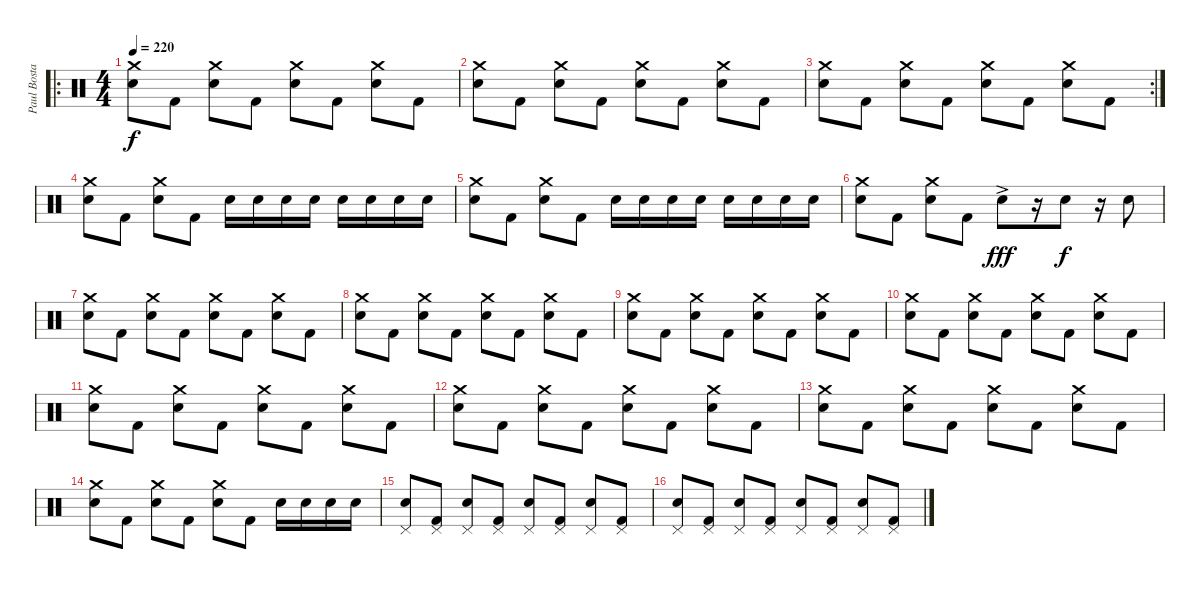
\track ("Paul Bostaph" "Paul Bosta") {instrument percussion}
\staff {score}
\articulation defaults
\ro
\ts (4 4)
\tempo 220
\clef neutral
\ks c
("Snare (hit) 2" "Crash medium (hit)").8{dy f} "Kick (hit) 2".8 ("Snare (hit) 2" "Crash medium (hit)").8 "Kick (hit) 2".8 ("Snare (hit) 2" "Crash medium (hit)").8 "Kick (hit) 2".8 ("Snare (hit) 2" "Crash medium (hit)").8 "Kick (hit) 2".8 |
("Snare (hit) 2" "Crash medium (hit)").8 "Kick (hit) 2".8 ("Snare (hit) 2" "Crash medium (hit)").8 "Kick (hit) 2".8 ("Snare (hit) 2" "Crash medium (hit)").8 "Kick (hit) 2".8 ("Snare (hit) 2" "Crash medium (hit)").8 "Kick (hit) 2".8 |
\rc 2
("Snare (hit) 2" "Crash medium (hit)").8 "Kick (hit) 2".8 ("Snare (hit) 2" "Crash medium (hit)").8 "Kick (hit) 2".8 ("Snare (hit) 2" "Crash medium (hit)").8 "Kick (hit) 2".8 ("Snare (hit) 2" "Crash medium (hit)").8 "Kick (hit) 2".8 |
("Snare (hit) 2" "Crash medium (hit)").8 "Kick (hit) 2".8 ("Snare (hit) 2" "Crash medium (hit)").8 "Kick (hit) 2".8 "Snare (hit) 2".16 "Snare (hit) 2".16 "Snare (hit) 2".16 "Snare (hit) 2".16 "Snare (hit) 2".16 "Snare (hit) 2".16 "Snare (hit) 2".16 "Snare (hit) 2".16 |
("Snare (hit) 2" "Crash medium (hit)").8 "Kick (hit) 2".8 ("Snare (hit) 2" "Crash medium (hit)").8 "Kick (hit) 2".8 "Snare (hit) 2".16 "Snare (hit) 2".16 "Snare (hit) 2".16 "Snare (hit) 2".16 "Snare (hit) 2".16 "Snare (hit) 2".16 "Snare (hit) 2".16 "Snare (hit) 2".16 |
("Snare (hit) 2" "Crash medium (hit)").8 "Kick (hit) 2".8 ("Snare (hit) 2" "Crash medium (hit)").8 "Kick (hit) 2".8 "Snare (hit) 2"{ac}.8{dy fff} r.16 "Snare (hit) 2".8{dy f} r.16 "Snare (hit) 2".8 |
("Snare (hit) 2" "Crash medium (hit)").8 "Kick (hit) 2".8 ("Snare (hit) 2" "Crash medium (hit)").8 "Kick (hit) 2".8 ("Snare (hit) 2" "Crash medium (hit)").8 "Kick (hit) 2".8 ("Snare (hit) 2" "Crash medium (hit)").8 "Kick (hit) 2".8 |
("Snare (hit) 2" "Crash medium (hit)").8 "Kick (hit) 2".8 ("Snare (hit) 2" "Crash medium (hit)").8 "Kick (hit) 2".8 ("Snare (hit) 2" "Crash medium (hit)").8 "Kick (hit) 2".8 ("Snare (hit) 2" "Crash medium (hit)").8 "Kick (hit) 2".8 |
("Snare (hit) 2" "Crash medium (hit)").8 "Kick (hit) 2".8 ("Snare (hit) 2" "Crash medium (hit)").8 "Kick (hit) 2".8 ("Snare (hit) 2" "Crash medium (hit)").8 "Kick (hit) 2".8 ("Snare (hit) 2" "Crash medium (hit)").8 "Kick (hit) 2".8 |
("Snare (hit) 2" "Crash medium (hit)").8 "Kick (hit) 2".8 ("Snare (hit) 2" "Crash medium (hit)").8 "Kick (hit) 2".8 ("Snare (hit) 2" "Crash medium (hit)").8 "Kick (hit) 2".8 ("Snare (hit) 2" "Crash medium (hit)").8 "Kick (hit) 2".8 |
("Snare (hit) 2" "Crash medium (hit)").8 "Kick (hit) 2".8 ("Snare (hit) 2" "Crash medium (hit)").8 "Kick (hit) 2".8 ("Snare (hit) 2" "Crash medium (hit)").8 "Kick (hit) 2".8 ("Snare (hit) 2" "Crash medium (hit)").8 "Kick (hit) 2".8 |
("Snare (hit) 2" "Crash medium (hit)").8 "Kick (hit) 2".8 ("Snare (hit) 2" "Crash medium (hit)").8 "Kick (hit) 2".8 ("Snare (hit) 2" "Crash medium (hit)").8 "Kick (hit) 2".8 ("Snare (hit) 2" "Crash medium (hit)").8 "Kick (hit) 2".8 |
("Snare (hit) 2" "Crash medium (hit)").8 "Kick (hit) 2".8 ("Snare (hit) 2" "Crash medium (hit)").8 "Kick (hit) 2".8 ("Snare (hit) 2" "Crash medium (hit)").8 "Kick (hit) 2".8 ("Snare (hit) 2" "Crash medium (hit)").8 "Kick (hit) 2".8 |
("Snare (hit) 2" "Crash medium (hit)").8 "Kick (hit) 2".8 ("Snare (hit) 2" "Crash medium (hit)").8 "Kick (hit) 2".8 ("Snare (hit) 2" "Crash medium (hit)").8 "Kick (hit) 2".8 "Snare (hit) 2".16 "Snare (hit) 2".16 "Snare (hit) 2".16 "Snare (hit) 2".16 |
("Snare (hit) 2" "Pedal Hi-Hat (hit)").8 ("Kick (hit) 2" "Pedal Hi-Hat (hit)").8 ("Snare (hit) 2" "Pedal Hi-Hat (hit)").8 ("Kick (hit) 2" "Pedal Hi-Hat (hit)").8 ("Snare (hit) 2" "Pedal Hi-Hat (hit)").8 ("Kick (hit) 2" "Pedal Hi-Hat (hit)").8 ("Snare (hit) 2" "Pedal Hi-Hat (hit)").8 ("Kick (hit) 2" "Pedal Hi-Hat (hit)").8 |
("Snare (hit) 2" "Pedal Hi-Hat (hit)").8 ("Kick (hit) 2" "Pedal Hi-Hat (hit)").8 ("Snare (hit) 2" "Pedal Hi-Hat (hit)").8 ("Kick (hit) 2" "Pedal Hi-Hat (hit)").8 ("Snare (hit) 2" "Pedal Hi-Hat (hit)").8 ("Kick (hit) 2" "Pedal Hi-Hat (hit)").8 ("Snare (hit) 2" "Pedal Hi-Hat (hit)").8 ("Kick (hit) 2" "Pedal Hi-Hat (hit)").8
